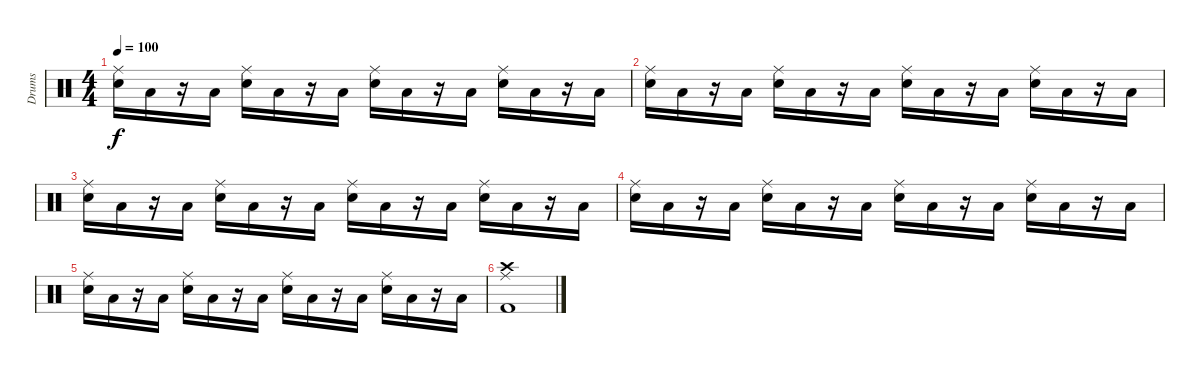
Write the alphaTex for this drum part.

\track ("Drums" "Drums") {instrument percussion}
\staff {score}
\articulation defaults
\ts (4 4)
\tempo 100
\clef neutral
\ks c
("Ride (middle)" "Snare (hit) 2").16{dy f} "Low Floor Tom (hit)".16 r.16 "Low Floor Tom (hit)".16 ("Ride (middle)" "Snare (hit) 2").16 "Low Floor Tom (hit)".16 r.16 "Low Floor Tom (hit)".16 ("Ride (middle)" "Snare (hit) 2").16 "Low Floor Tom (hit)".16 r.16 "Low Floor Tom (hit)".16 ("Ride (middle)" "Snare (hit) 2").16 "Low Floor Tom (hit)".16 r.16 "Low Floor Tom (hit)".16 |
("Ride (middle)" "Snare (hit) 2").16 "Low Floor Tom (hit)".16 r.16 "Low Floor Tom (hit)".16 ("Ride (middle)" "Snare (hit) 2").16 "Low Floor Tom (hit)".16 r.16 "Low Floor Tom (hit)".16 ("Ride (middle)" "Snare (hit) 2").16 "Low Floor Tom (hit)".16 r.16 "Low Floor Tom (hit)".16 ("Ride (middle)" "Snare (hit) 2").16 "Low Floor Tom (hit)".16 r.16 "Low Floor Tom (hit)".16 |
("Ride (middle)" "Snare (hit) 2").16 "Low Floor Tom (hit)".16 r.16 "Low Floor Tom (hit)".16 ("Ride (middle)" "Snare (hit) 2").16 "Low Floor Tom (hit)".16 r.16 "Low Floor Tom (hit)".16 ("Ride (middle)" "Snare (hit) 2").16 "Low Floor Tom (hit)".16 r.16 "Low Floor Tom (hit)".16 ("Ride (middle)" "Snare (hit) 2").16 "Low Floor Tom (hit)".16 r.16 "Low Floor Tom (hit)".16 |
("Ride (middle)" "Snare (hit) 2").16 "Low Floor Tom (hit)".16 r.16 "Low Floor Tom (hit)".16 ("Ride (middle)" "Snare (hit) 2").16 "Low Floor Tom (hit)".16 r.16 "Low Floor Tom (hit)".16 ("Ride (middle)" "Snare (hit) 2").16 "Low Floor Tom (hit)".16 r.16 "Low Floor Tom (hit)".16 ("Ride (middle)" "Snare (hit) 2").16 "Low Floor Tom (hit)".16 r.16 "Low Floor Tom (hit)".16 |
("Ride (middle)" "Snare (hit) 2").16 "Low Floor Tom (hit)".16 r.16 "Low Floor Tom (hit)".16 ("Ride (middle)" "Snare (hit) 2").16 "Low Floor Tom (hit)".16 r.16 "Low Floor Tom (hit)".16 ("Ride (middle)" "Snare (hit) 2").16 "Low Floor Tom (hit)".16 r.16 "Low Floor Tom (hit)".16 ("Ride (middle)" "Snare (hit) 2").16 "Low Floor Tom (hit)".16 r.16 "Low Floor Tom (hit)".16 |
("Crash high (hit)" "Ride (middle)" "Kick (hit) 2").1
